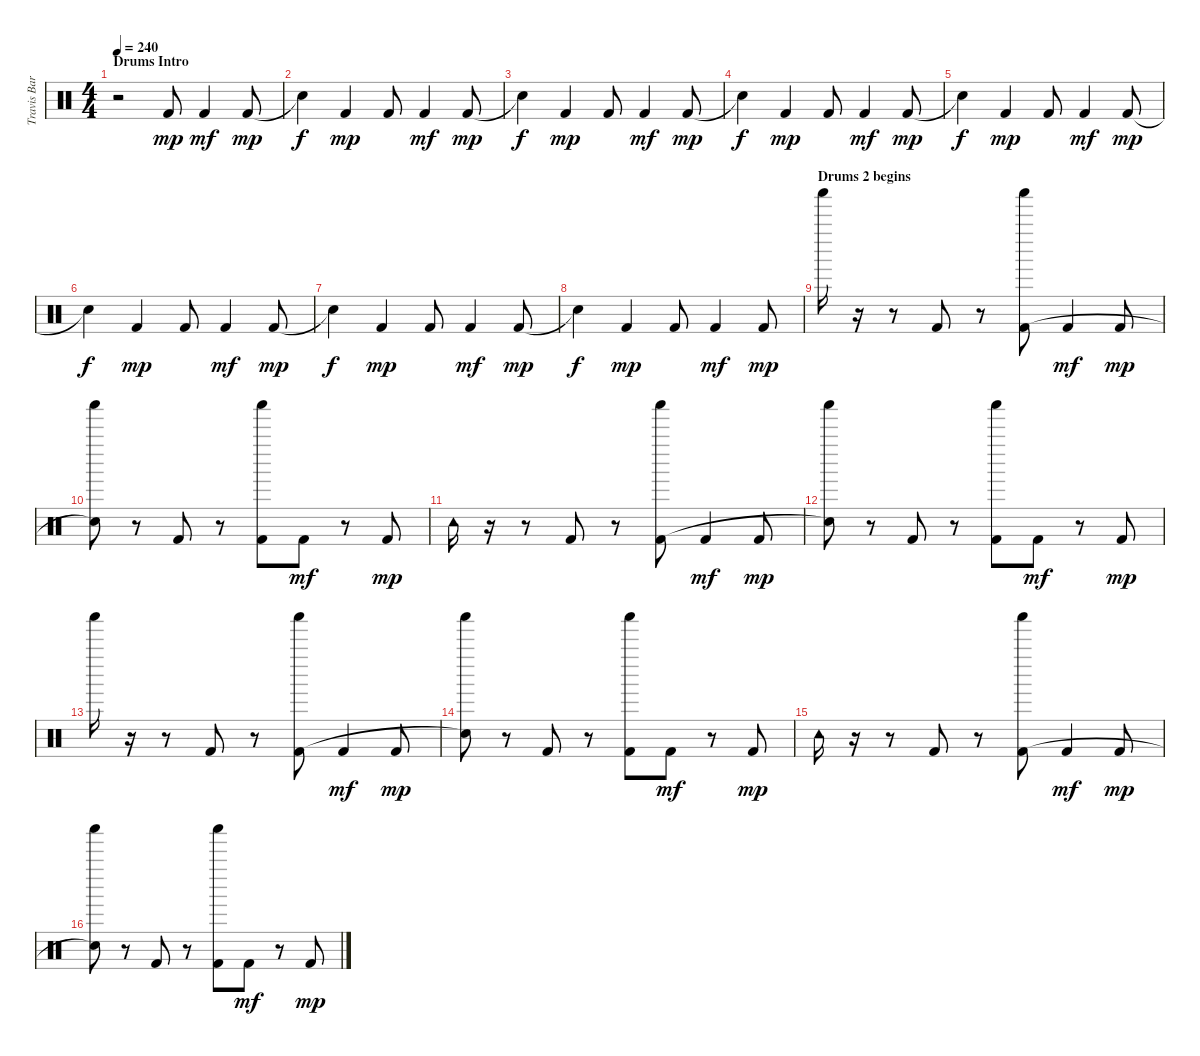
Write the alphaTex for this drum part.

\track ("Travis Barker - Drums" "Travis Bar") {instrument percussion}
\staff {score}
\articulation defaults
\ts (4 4)
\section ("" "Drums Intro")
\tempo 240
\clef neutral
\ks c
r.2{dy mp} "Kick (hit) 2".8 "Kick (hit) 2".4{dy mf} "Kick (hit) 2".8{dy mp} |
"Snare (hit)"{t}.4{dy f} "Kick (hit) 2".4{dy mp} "Kick (hit) 2".8 "Kick (hit) 2".4{dy mf} "Kick (hit) 2".8{dy mp} |
"Snare (hit)"{t}.4{dy f} "Kick (hit) 2".4{dy mp} "Kick (hit) 2".8 "Kick (hit) 2".4{dy mf} "Kick (hit) 2".8{dy mp} |
"Snare (hit)"{t}.4{dy f} "Kick (hit) 2".4{dy mp} "Kick (hit) 2".8 "Kick (hit) 2".4{dy mf} "Kick (hit) 2".8{dy mp} |
"Snare (hit)"{t}.4{dy f} "Kick (hit) 2".4{dy mp} "Kick (hit) 2".8 "Kick (hit) 2".4{dy mf} "Kick (hit) 2".8{dy mp} |
"Snare (hit)"{t}.4{dy f} "Kick (hit) 2".4{dy mp} "Kick (hit) 2".8 "Kick (hit) 2".4{dy mf} "Kick (hit) 2".8{dy mp} |
"Snare (hit)"{t}.4{dy f} "Kick (hit) 2".4{dy mp} "Kick (hit) 2".8 "Kick (hit) 2".4{dy mf} "Kick (hit) 2".8{dy mp} |
"Snare (hit)"{t}.4{dy f} "Kick (hit) 2".4{dy mp} "Kick (hit) 2".8 "Kick (hit) 2".4{dy mf} "Kick (hit) 2".8{dy mp} |
\section ("" "Drums 2 begins")
"Shaker (hit)".16 r.16 r.8 "Kick (hit) 2".8 r.8 ("Shaker (hit)" "Kick (hit) 2").8 "Kick (hit) 2".4{dy mf} "Kick (hit) 2".8{dy mp} |
("Shaker (hit)" "Snare (hit)"{t}).8 r.8 "Kick (hit) 2".8 r.8 ("Shaker (hit)" "Kick (hit) 2").8 "Kick (hit) 2".8{dy mf} r.8 "Kick (hit) 2".8{dy mp} |
"Tambourine (hit)".16 r.16 r.8 "Kick (hit) 2".8 r.8 ("Shaker (hit)" "Kick (hit) 2").8 "Kick (hit) 2".4{dy mf} "Kick (hit) 2".8{dy mp} |
("Shaker (hit)" "Snare (hit)"{t}).8 r.8 "Kick (hit) 2".8 r.8 ("Shaker (hit)" "Kick (hit) 2").8 "Kick (hit) 2".8{dy mf} r.8 "Kick (hit) 2".8{dy mp} |
"Shaker (hit)".16 r.16 r.8 "Kick (hit) 2".8 r.8 ("Shaker (hit)" "Kick (hit) 2").8 "Kick (hit) 2".4{dy mf} "Kick (hit) 2".8{dy mp} |
("Shaker (hit)" "Snare (hit)"{t}).8 r.8 "Kick (hit) 2".8 r.8 ("Shaker (hit)" "Kick (hit) 2").8 "Kick (hit) 2".8{dy mf} r.8 "Kick (hit) 2".8{dy mp} |
"Tambourine (hit)".16 r.16 r.8 "Kick (hit) 2".8 r.8 ("Shaker (hit)" "Kick (hit) 2").8 "Kick (hit) 2".4{dy mf} "Kick (hit) 2".8{dy mp} |
("Shaker (hit)" "Snare (hit)"{t}).8 r.8 "Kick (hit) 2".8 r.8 ("Shaker (hit)" "Kick (hit) 2").8 "Kick (hit) 2".8{dy mf} r.8 "Kick (hit) 2".8{dy mp}
